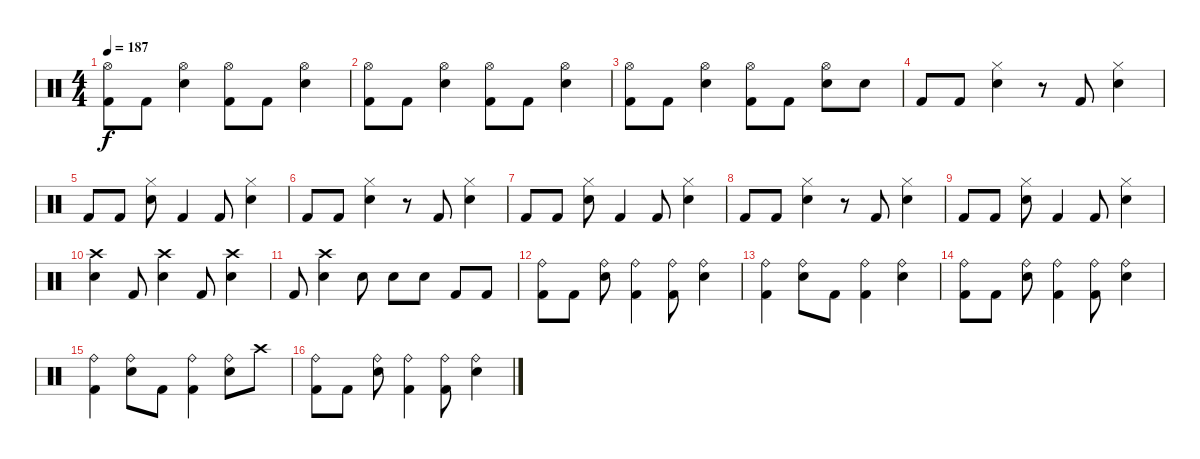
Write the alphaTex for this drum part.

\track "" {instrument percussion}
\staff {score}
\articulation defaults
\ts (4 4)
\tempo 187
\clef neutral
\ks c
("Hi-Hat (open)" "Kick (hit) 2").8{dy f} "Kick (hit) 2".8 ("Hi-Hat (open)" "Electric Snare (hit)").4 ("Hi-Hat (open)" "Kick (hit) 2").8 "Kick (hit) 2".8 ("Hi-Hat (open)" "Electric Snare (hit)").4 |
("Hi-Hat (open)" "Kick (hit) 2").8 "Kick (hit) 2".8 ("Hi-Hat (open)" "Electric Snare (hit)").4 ("Hi-Hat (open)" "Kick (hit) 2").8 "Kick (hit) 2".8 ("Hi-Hat (open)" "Electric Snare (hit)").4 |
("Hi-Hat (open)" "Kick (hit) 2").8 "Kick (hit) 2".8 ("Hi-Hat (open)" "Electric Snare (hit)").4 ("Hi-Hat (open)" "Kick (hit) 2").8 "Kick (hit) 2".8 ("Hi-Hat (open)" "Electric Snare (hit)").8 "Electric Snare (hit)".8 |
"Kick (hit) 2".8 "Kick (hit) 2".8 ("Hi-Hat (closed)" "Electric Snare (hit)").4 r.8 "Kick (hit) 2".8 ("Hi-Hat (closed)" "Electric Snare (hit)").4 |
"Kick (hit) 2".8 "Kick (hit) 2".8 ("Hi-Hat (closed)" "Electric Snare (hit)").8 "Kick (hit) 2".4 "Kick (hit) 2".8 ("Hi-Hat (closed)" "Electric Snare (hit)").4 |
"Kick (hit) 2".8 "Kick (hit) 2".8 ("Hi-Hat (closed)" "Electric Snare (hit)").4 r.8 "Kick (hit) 2".8 ("Hi-Hat (closed)" "Electric Snare (hit)").4 |
"Kick (hit) 2".8 "Kick (hit) 2".8 ("Hi-Hat (closed)" "Electric Snare (hit)").8 "Kick (hit) 2".4 "Kick (hit) 2".8 ("Hi-Hat (closed)" "Electric Snare (hit)").4 |
"Kick (hit) 2".8 "Kick (hit) 2".8 ("Hi-Hat (closed)" "Electric Snare (hit)").4 r.8 "Kick (hit) 2".8 ("Hi-Hat (closed)" "Electric Snare (hit)").4 |
"Kick (hit) 2".8 "Kick (hit) 2".8 ("Hi-Hat (closed)" "Electric Snare (hit)").8 "Kick (hit) 2".4 "Kick (hit) 2".8 ("Hi-Hat (closed)" "Electric Snare (hit)").4 |
("Crash high (hit)" "Electric Snare (hit)").4 "Kick (hit) 2".8 ("Crash high (hit)" "Electric Snare (hit)").4 "Kick (hit) 2".8 ("Crash high (hit)" "Electric Snare (hit)").4 |
"Kick (hit) 2".8 ("Crash high (hit)" "Electric Snare (hit)").4 "Electric Snare (hit)".8 "Electric Snare (hit)".8 "Electric Snare (hit)".8 "Kick (hit) 2".8 "Kick (hit) 2".8 |
("Ride (bell)" "Kick (hit) 2").8 "Kick (hit) 2".8 ("Ride (bell)" "Electric Snare (hit)").8 ("Ride (bell)" "Kick (hit) 2").4 ("Ride (bell)" "Kick (hit) 2").8 ("Ride (bell)" "Electric Snare (hit)").4 |
("Ride (bell)" "Kick (hit) 2").4 ("Ride (bell)" "Electric Snare (hit)").8 "Kick (hit) 2".8 ("Ride (bell)" "Kick (hit) 2").4 ("Ride (bell)" "Electric Snare (hit)").4 |
("Ride (bell)" "Kick (hit) 2").8 "Kick (hit) 2".8 ("Ride (bell)" "Electric Snare (hit)").8 ("Ride (bell)" "Kick (hit) 2").4 ("Ride (bell)" "Kick (hit) 2").8 ("Ride (bell)" "Electric Snare (hit)").4 |
("Ride (bell)" "Kick (hit) 2").4 ("Ride (bell)" "Electric Snare (hit)").8 "Kick (hit) 2".8 ("Ride (bell)" "Kick (hit) 2").4 ("Ride (bell)" "Electric Snare (hit)").8 "Crash high (hit)".8 |
("Ride (bell)" "Kick (hit) 2").8 "Kick (hit) 2".8 ("Ride (bell)" "Electric Snare (hit)").8 ("Ride (bell)" "Kick (hit) 2").4 ("Ride (bell)" "Kick (hit) 2").8 ("Ride (bell)" "Electric Snare (hit)").4
